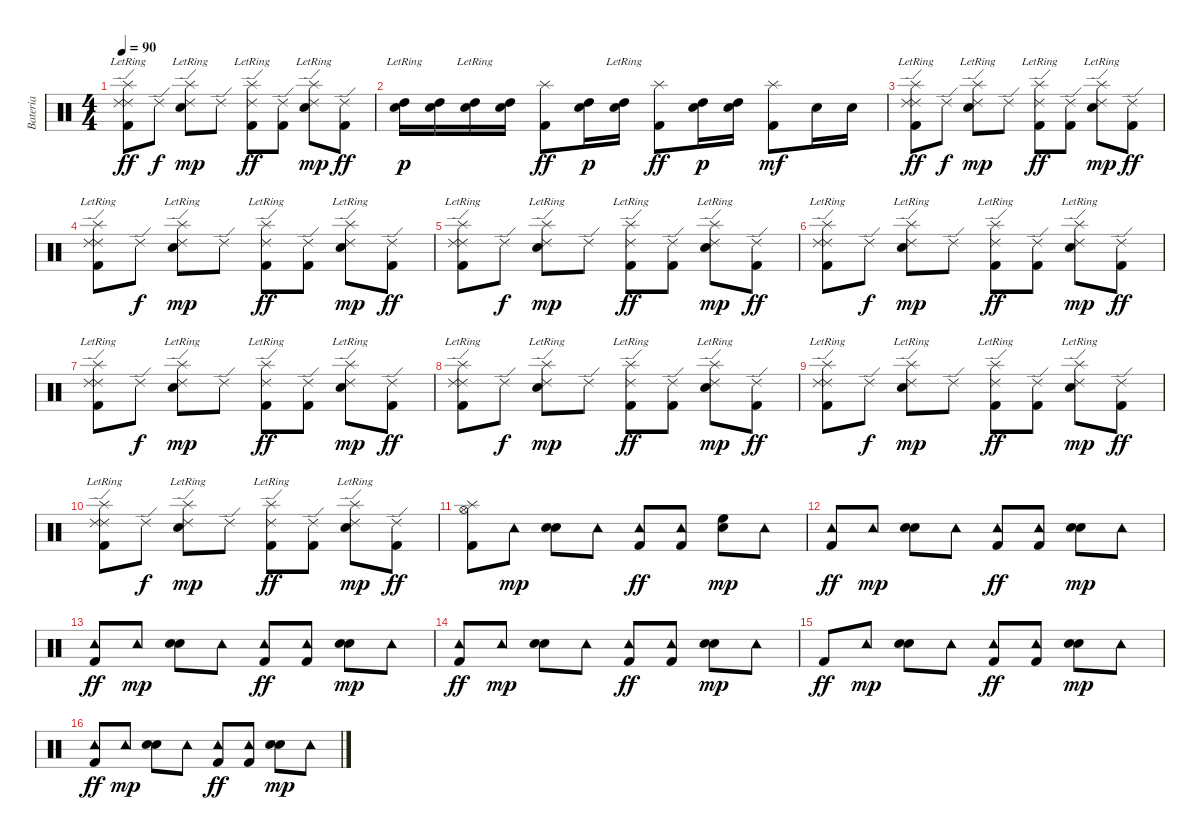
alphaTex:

\track ("Bateria" "Bateria") {instrument percussion}
\staff {score}
\articulation defaults
\ts (4 4)
\tempo 90
\clef neutral
\ks c
("Splash (hit)"{lr} "Ride (edge) 2" "Ride (edge) 2" "Kick (hit) 2").8{dy ff} "Ride (edge) 2".8{dy f} ("Splash (hit)"{lr} "Electric Snare (hit)" "Ride (edge) 2").8{dy mp} "Ride (edge) 2".8 ("Splash (hit)"{lr} "Ride (edge) 2" "Kick (hit) 2").8{dy ff} ("Ride (edge) 2" "Kick (hit) 2").8 ("Splash (hit)"{lr} "Electric Snare (hit)" "Ride (edge) 2").8{dy mp} ("Ride (edge) 2" "Kick (hit) 2").8{dy ff} |
("Electric Snare (hit)"{lr} "High Tom (hit)").16{dy p} ("Electric Snare (hit)" "High Tom (hit)").16 ("Electric Snare (hit)"{lr} "High Tom (hit)").16 ("Electric Snare (hit)" "High Tom (hit)").16 ("Splash (hit)" "Kick (hit) 2").8{dy ff} ("Electric Snare (hit)" "High Tom (hit)").16{dy p} ("Electric Snare (hit)"{lr} "High Tom (hit)").16 ("Splash (hit)" "Kick (hit) 2").8{dy ff} ("Electric Snare (hit)" "High Tom (hit)").16{dy p} ("Electric Snare (hit)" "High Tom (hit)").16 ("Splash (hit)" "Kick (hit) 2").8{dy mf} "Electric Snare (hit)".16 "Electric Snare (hit)".16 |
("Splash (hit)"{lr} "Ride (edge) 2" "Ride (edge) 2" "Kick (hit) 2").8{dy ff} "Ride (edge) 2".8{dy f} ("Splash (hit)"{lr} "Electric Snare (hit)" "Ride (edge) 2").8{dy mp} "Ride (edge) 2".8 ("Splash (hit)"{lr} "Ride (edge) 2" "Kick (hit) 2").8{dy ff} ("Ride (edge) 2" "Kick (hit) 2").8 ("Splash (hit)"{lr} "Electric Snare (hit)" "Ride (edge) 2").8{dy mp} ("Ride (edge) 2" "Kick (hit) 2").8{dy ff} |
("Splash (hit)"{lr} "Ride (edge) 2" "Ride (edge) 2" "Kick (hit) 2").8 "Ride (edge) 2".8{dy f} ("Splash (hit)"{lr} "Electric Snare (hit)" "Ride (edge) 2").8{dy mp} "Ride (edge) 2".8 ("Splash (hit)"{lr} "Ride (edge) 2" "Kick (hit) 2").8{dy ff} ("Ride (edge) 2" "Kick (hit) 2").8 ("Splash (hit)"{lr} "Electric Snare (hit)" "Ride (edge) 2").8{dy mp} ("Ride (edge) 2" "Kick (hit) 2").8{dy ff} |
("Splash (hit)"{lr} "Ride (edge) 2" "Ride (edge) 2" "Kick (hit) 2").8 "Ride (edge) 2".8{dy f} ("Splash (hit)"{lr} "Electric Snare (hit)" "Ride (edge) 2").8{dy mp} "Ride (edge) 2".8 ("Splash (hit)"{lr} "Ride (edge) 2" "Kick (hit) 2").8{dy ff} ("Ride (edge) 2" "Kick (hit) 2").8 ("Splash (hit)"{lr} "Electric Snare (hit)" "Ride (edge) 2").8{dy mp} ("Ride (edge) 2" "Kick (hit) 2").8{dy ff} |
("Splash (hit)"{lr} "Ride (edge) 2" "Ride (edge) 2" "Kick (hit) 2").8 "Ride (edge) 2".8{dy f} ("Splash (hit)"{lr} "Electric Snare (hit)" "Ride (edge) 2").8{dy mp} "Ride (edge) 2".8 ("Splash (hit)"{lr} "Ride (edge) 2" "Kick (hit) 2").8{dy ff} ("Ride (edge) 2" "Kick (hit) 2").8 ("Splash (hit)"{lr} "Electric Snare (hit)" "Ride (edge) 2").8{dy mp} ("Ride (edge) 2" "Kick (hit) 2").8{dy ff} |
("Splash (hit)"{lr} "Ride (edge) 2" "Ride (edge) 2" "Kick (hit) 2").8 "Ride (edge) 2".8{dy f} ("Splash (hit)"{lr} "Electric Snare (hit)" "Ride (edge) 2").8{dy mp} "Ride (edge) 2".8 ("Splash (hit)"{lr} "Ride (edge) 2" "Kick (hit) 2").8{dy ff} ("Ride (edge) 2" "Kick (hit) 2").8 ("Splash (hit)"{lr} "Electric Snare (hit)" "Ride (edge) 2").8{dy mp} ("Ride (edge) 2" "Kick (hit) 2").8{dy ff} |
("Splash (hit)"{lr} "Ride (edge) 2" "Ride (edge) 2" "Kick (hit) 2").8 "Ride (edge) 2".8{dy f} ("Splash (hit)"{lr} "Electric Snare (hit)" "Ride (edge) 2").8{dy mp} "Ride (edge) 2".8 ("Splash (hit)"{lr} "Ride (edge) 2" "Kick (hit) 2").8{dy ff} ("Ride (edge) 2" "Kick (hit) 2").8 ("Splash (hit)"{lr} "Electric Snare (hit)" "Ride (edge) 2").8{dy mp} ("Ride (edge) 2" "Kick (hit) 2").8{dy ff} |
("Splash (hit)"{lr} "Ride (edge) 2" "Ride (edge) 2" "Kick (hit) 2").8 "Ride (edge) 2".8{dy f} ("Splash (hit)"{lr} "Electric Snare (hit)" "Ride (edge) 2").8{dy mp} "Ride (edge) 2".8 ("Splash (hit)"{lr} "Ride (edge) 2" "Kick (hit) 2").8{dy ff} ("Ride (edge) 2" "Kick (hit) 2").8 ("Splash (hit)"{lr} "Electric Snare (hit)" "Ride (edge) 2").8{dy mp} ("Ride (edge) 2" "Kick (hit) 2").8{dy ff} |
("Splash (hit)"{lr} "Ride (edge) 2" "Ride (edge) 2" "Kick (hit) 2").8 "Ride (edge) 2".8{dy f} ("Splash (hit)"{lr} "Electric Snare (hit)" "Ride (edge) 2").8{dy mp} "Ride (edge) 2".8 ("Splash (hit)"{lr} "Ride (edge) 2" "Kick (hit) 2").8{dy ff} ("Ride (edge) 2" "Kick (hit) 2").8 ("Splash (hit)"{lr} "Electric Snare (hit)" "Ride (edge) 2").8{dy mp} ("Ride (edge) 2" "Kick (hit) 2").8{dy ff} |
("Hi-Hat (open)" "Splash (hit)" "Kick (hit) 2").8 "Tambourine (hit)".8{dy mp} ("Electric Snare (hit)" "Electric Snare (hit)").8 "Tambourine (hit)".8 ("Tambourine (hit)" "Kick (hit) 2").8{dy ff} ("Tambourine (hit)" "Kick (hit) 2").8 ("High Floor Tom (hit)" "Electric Snare (hit)").8{dy mp} "Tambourine (hit)".8 |
("Tambourine (hit)" "Kick (hit) 2").8{dy ff} "Tambourine (hit)".8{dy mp} ("Electric Snare (hit)" "Electric Snare (hit)").8 "Tambourine (hit)".8 ("Tambourine (hit)" "Kick (hit) 2").8{dy ff} ("Tambourine (hit)" "Kick (hit) 2").8 ("Electric Snare (hit)" "Electric Snare (hit)").8{dy mp} "Tambourine (hit)".8 |
("Tambourine (hit)" "Kick (hit) 2").8{dy ff} "Tambourine (hit)".8{dy mp} ("Electric Snare (hit)" "Electric Snare (hit)").8 "Tambourine (hit)".8 ("Tambourine (hit)" "Kick (hit) 2").8{dy ff} ("Tambourine (hit)" "Kick (hit) 2").8 ("Electric Snare (hit)" "Electric Snare (hit)").8{dy mp} "Tambourine (hit)".8 |
("Tambourine (hit)" "Kick (hit) 2").8{dy ff} "Tambourine (hit)".8{dy mp} ("Electric Snare (hit)" "Electric Snare (hit)").8 "Tambourine (hit)".8 ("Tambourine (hit)" "Kick (hit) 2").8{dy ff} ("Tambourine (hit)" "Kick (hit) 2").8 ("Electric Snare (hit)" "Electric Snare (hit)").8{dy mp} "Tambourine (hit)".8 |
"Kick (hit) 2".8{dy ff} "Tambourine (hit)".8{dy mp} ("Electric Snare (hit)" "Electric Snare (hit)").8 "Tambourine (hit)".8 ("Tambourine (hit)" "Kick (hit) 2").8{dy ff} ("Tambourine (hit)" "Kick (hit) 2").8 ("Electric Snare (hit)" "Electric Snare (hit)").8{dy mp} "Tambourine (hit)".8 |
("Tambourine (hit)" "Kick (hit) 2").8{dy ff} "Tambourine (hit)".8{dy mp} ("Electric Snare (hit)" "Electric Snare (hit)").8 "Tambourine (hit)".8 ("Tambourine (hit)" "Kick (hit) 2").8{dy ff} ("Tambourine (hit)" "Kick (hit) 2").8 ("Electric Snare (hit)" "Electric Snare (hit)").8{dy mp} "Tambourine (hit)".8
